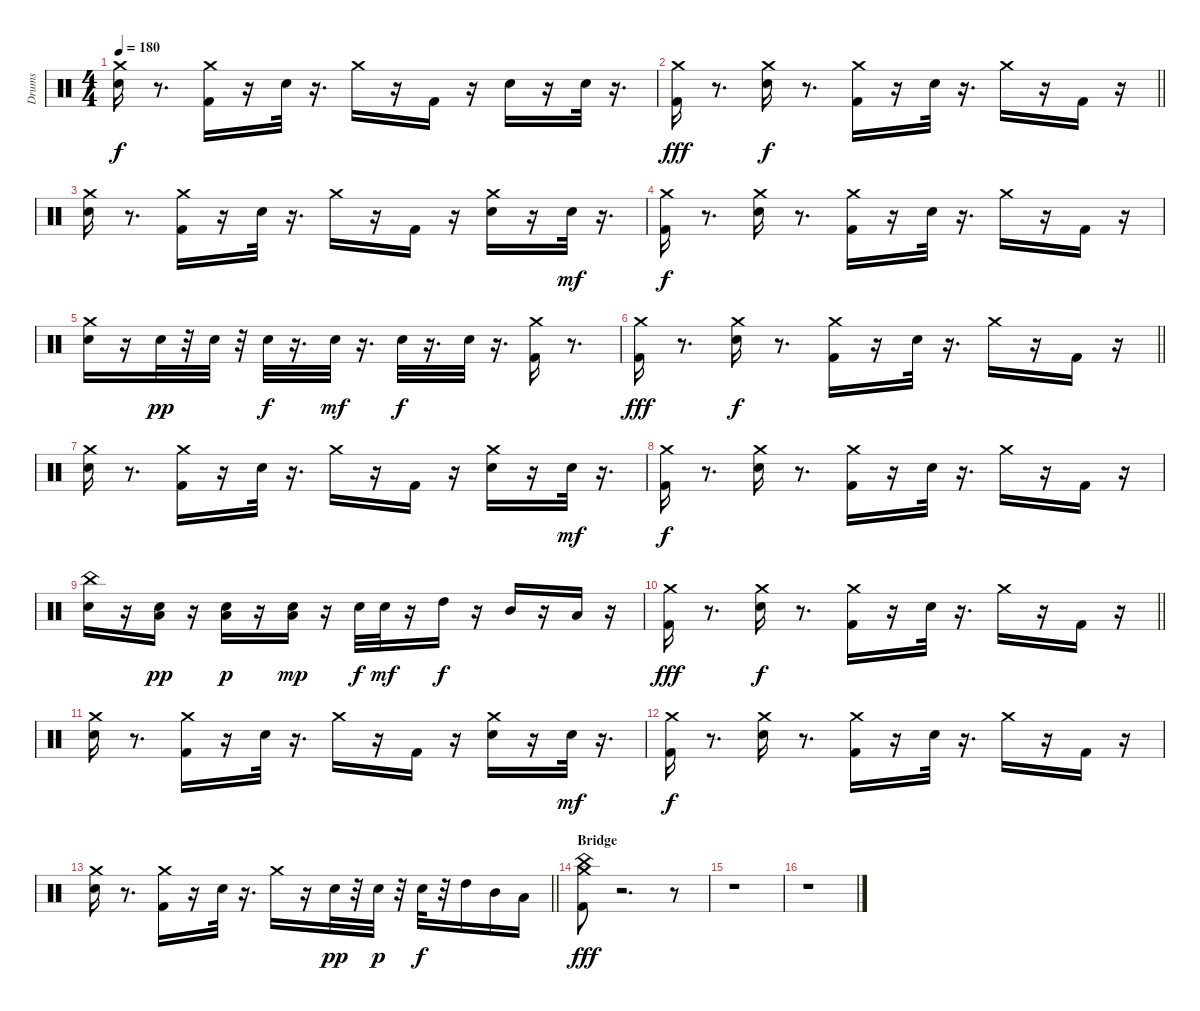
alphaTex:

\track ("Drums" "Drums") {instrument percussion}
\staff {score}
\articulation defaults
\ts (4 4)
\tempo 180
\clef neutral
\ks c
("Crash medium (hit)" "Snare (hit) 2").16{dy f} r.8{d} ("Crash medium (hit)" "Kick (hit) 2").16 r.16 "Snare (hit) 2".32 r.16{d} "Crash medium (hit)".16 r.16 "Kick (hit) 2".16 r.16 "Snare (hit) 2".16 r.16 "Snare (hit) 2".32 r.16{d} |
\barLineRight lightlight
("Kick (hit) 2" "Crash medium (hit)").16{dy fff} r.8{d} ("Snare (hit) 2" "Crash medium (hit)").16{dy f} r.8{d} ("Kick (hit) 2" "Crash medium (hit)").16 r.16 "Snare (hit) 2".32 r.16{d} "Crash medium (hit)".16 r.16 "Kick (hit) 2".16 r.16 |
("Snare (hit) 2" "Crash medium (hit)").16 r.8{d} ("Kick (hit) 2" "Crash medium (hit)").16 r.16 "Snare (hit) 2".32 r.16{d} "Crash medium (hit)".16 r.16 "Kick (hit) 2".16 r.16 ("Snare (hit) 2" "Crash medium (hit)").16 r.16 "Snare (hit) 2".32{dy mf} r.16{d} |
("Kick (hit) 2" "Crash medium (hit)").16{dy f} r.8{d} ("Snare (hit) 2" "Crash medium (hit)").16 r.8{d} ("Kick (hit) 2" "Crash medium (hit)").16 r.16 "Snare (hit) 2".32 r.16{d} "Crash medium (hit)".16 r.16 "Kick (hit) 2".16 r.16 |
("Crash medium (hit)" "Snare (hit) 2").16 r.16 "Snare (hit) 2".32{dy pp} r.32 "Snare (hit) 2".32 r.32 "Snare (hit) 2".32{dy f} r.16{d} "Snare (hit) 2".32{dy mf} r.16{d} "Snare (hit) 2".32{dy f} r.16{d} "Snare (hit) 2".32 r.16{d} ("Kick (hit) 2" "Crash medium (hit)").16 r.8{d} |
\barLineRight lightlight
("Kick (hit) 2" "Crash medium (hit)").16{dy fff} r.8{d} ("Snare (hit) 2" "Crash medium (hit)").16{dy f} r.8{d} ("Kick (hit) 2" "Crash medium (hit)").16 r.16 "Snare (hit) 2".32 r.16{d} "Crash medium (hit)".16 r.16 "Kick (hit) 2".16 r.16 |
("Snare (hit) 2" "Crash medium (hit)").16 r.8{d} ("Kick (hit) 2" "Crash medium (hit)").16 r.16 "Snare (hit) 2".32 r.16{d} "Crash medium (hit)".16 r.16 "Kick (hit) 2".16 r.16 ("Snare (hit) 2" "Crash medium (hit)").16 r.16 "Snare (hit) 2".32{dy mf} r.16{d} |
("Kick (hit) 2" "Crash medium (hit)").16{dy f} r.8{d} ("Snare (hit) 2" "Crash medium (hit)").16 r.8{d} ("Kick (hit) 2" "Crash medium (hit)").16 r.16 "Snare (hit) 2".32 r.16{d} "Crash medium (hit)".16 r.16 "Kick (hit) 2".16 r.16 |
("Snare (hit) 2" "China (hit)").16 r.16 ("Snare (hit) 2" "Low Floor Tom (hit)").16{dy pp} r.16 ("Snare (hit) 2" "Low Floor Tom (hit)").16{dy p} r.16 ("Low Tom (hit)" "Snare (hit) 2").16{dy mp} r.16 "Snare (hit) 2".32{dy f} "Snare (hit) 2".32{dy mf} r.16 "High Tom (hit)".16{dy f} r.16 "Mid Tom (hit)".16 r.16 "Low Tom (hit)".16 r.16 |
\barLineRight lightlight
("Kick (hit) 2" "Crash medium (hit)").16{dy fff} r.8{d} ("Snare (hit) 2" "Crash medium (hit)").16{dy f} r.8{d} ("Kick (hit) 2" "Crash medium (hit)").16 r.16 "Snare (hit) 2".32 r.16{d} "Crash medium (hit)".16 r.16 "Kick (hit) 2".16 r.16 |
("Snare (hit) 2" "Crash medium (hit)").16 r.8{d} ("Kick (hit) 2" "Crash medium (hit)").16 r.16 "Snare (hit) 2".32 r.16{d} "Crash medium (hit)".16 r.16 "Kick (hit) 2".16 r.16 ("Snare (hit) 2" "Crash medium (hit)").16 r.16 "Snare (hit) 2".32{dy mf} r.16{d} |
("Kick (hit) 2" "Crash medium (hit)").16{dy f} r.8{d} ("Snare (hit) 2" "Crash medium (hit)").16 r.8{d} ("Kick (hit) 2" "Crash medium (hit)").16 r.16 "Snare (hit) 2".32 r.16{d} "Crash medium (hit)".16 r.16 "Kick (hit) 2".16 r.16 |
\barLineRight lightlight
("Crash medium (hit)" "Snare (hit) 2").16 r.8{d} ("Crash medium (hit)" "Kick (hit) 2").16 r.16 "Snare (hit) 2".32 r.16{d} "Crash medium (hit)".16 r.16 "Snare (hit) 2".32{dy pp} r.32 "Snare (hit) 2".32{dy p} r.32 "Snare (hit) 2".32{dy f} r.32 "High Tom (hit)".16 "Mid Tom (hit)".16 "Low Tom (hit)".16 |
\section ("" "Bridge")
("Kick (hit) 2" "Crash medium (hit)" "China (hit)").8{dy fff} r.2{d} r.8 |
r.1 |
r.1
